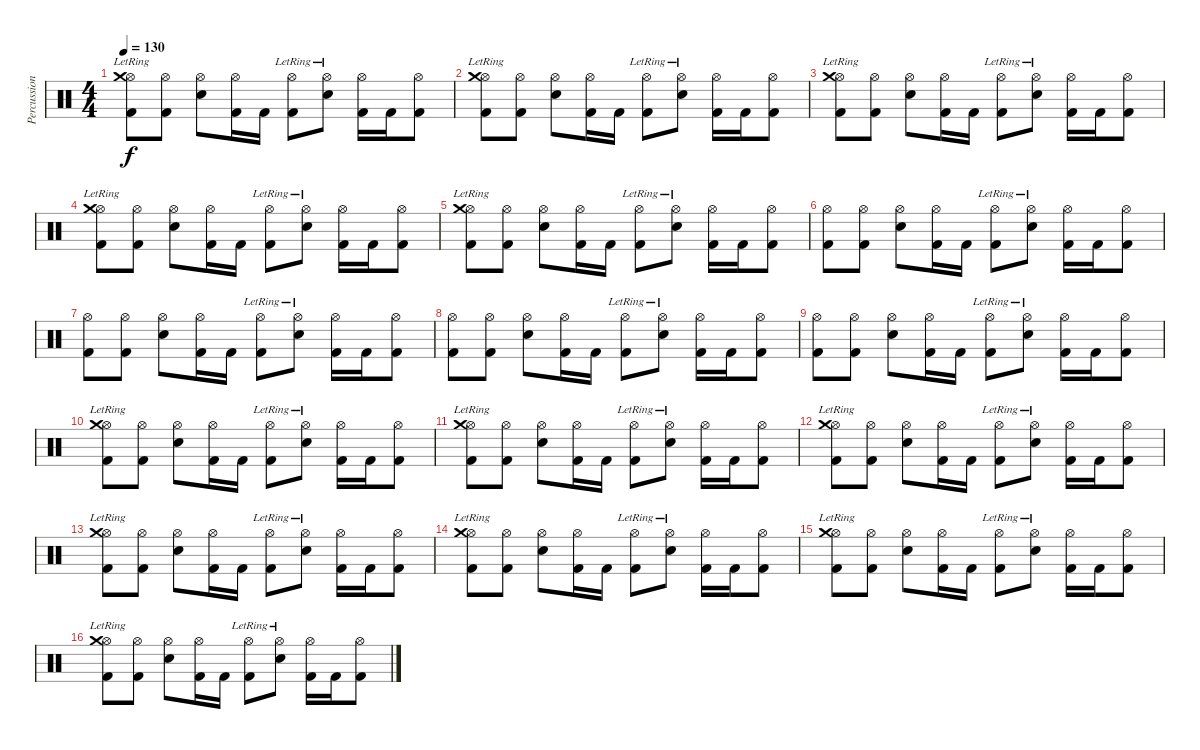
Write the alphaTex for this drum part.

\track ("Percussions" "Percussion") {instrument percussion}
\staff {score}
\articulation defaults
\ts (4 4)
\tempo 130
\clef neutral
\ks c
("Kick (hit) 2" "Hi-Hat (open)" "Crash medium (hit)"{lr}).8{dy f} ("Kick (hit) 2" "Hi-Hat (open)").8 ("Snare (hit) 2" "Hi-Hat (open)").8 ("Kick (hit) 2" "Hi-Hat (open)").16 "Kick (hit) 2".16 ("Kick (hit) 2" "Hi-Hat (open)"{lr}).8 ("Snare (hit) 2" "Hi-Hat (open)"{lr}).8 ("Kick (hit) 2" "Hi-Hat (open)").16 "Kick (hit) 2".16 ("Kick (hit) 2" "Hi-Hat (open)").8 |
("Kick (hit) 2" "Hi-Hat (open)" "Crash medium (hit)"{lr}).8 ("Kick (hit) 2" "Hi-Hat (open)").8 ("Snare (hit) 2" "Hi-Hat (open)").8 ("Kick (hit) 2" "Hi-Hat (open)").16 "Kick (hit) 2".16 ("Kick (hit) 2" "Hi-Hat (open)"{lr}).8 ("Snare (hit) 2" "Hi-Hat (open)"{lr}).8 ("Kick (hit) 2" "Hi-Hat (open)").16 "Kick (hit) 2".16 ("Kick (hit) 2" "Hi-Hat (open)").8 |
("Kick (hit) 2" "Hi-Hat (open)" "Crash medium (hit)"{lr}).8 ("Kick (hit) 2" "Hi-Hat (open)").8 ("Snare (hit) 2" "Hi-Hat (open)").8 ("Kick (hit) 2" "Hi-Hat (open)").16 "Kick (hit) 2".16 ("Kick (hit) 2" "Hi-Hat (open)"{lr}).8 ("Snare (hit) 2" "Hi-Hat (open)"{lr}).8 ("Kick (hit) 2" "Hi-Hat (open)").16 "Kick (hit) 2".16 ("Kick (hit) 2" "Hi-Hat (open)").8 |
("Kick (hit) 2" "Hi-Hat (open)" "Crash medium (hit)"{lr}).8 ("Kick (hit) 2" "Hi-Hat (open)").8 ("Snare (hit) 2" "Hi-Hat (open)").8 ("Kick (hit) 2" "Hi-Hat (open)").16 "Kick (hit) 2".16 ("Kick (hit) 2" "Hi-Hat (open)"{lr}).8 ("Snare (hit) 2" "Hi-Hat (open)"{lr}).8 ("Kick (hit) 2" "Hi-Hat (open)").16 "Kick (hit) 2".16 ("Kick (hit) 2" "Hi-Hat (open)").8 |
("Kick (hit) 2" "Hi-Hat (open)" "Crash medium (hit)"{lr}).8 ("Kick (hit) 2" "Hi-Hat (open)").8 ("Snare (hit) 2" "Hi-Hat (open)").8 ("Kick (hit) 2" "Hi-Hat (open)").16 "Kick (hit) 2".16 ("Kick (hit) 2" "Hi-Hat (open)"{lr}).8 ("Snare (hit) 2" "Hi-Hat (open)"{lr}).8 ("Kick (hit) 2" "Hi-Hat (open)").16 "Kick (hit) 2".16 ("Kick (hit) 2" "Hi-Hat (open)").8 |
("Kick (hit) 2" "Hi-Hat (open)").8 ("Kick (hit) 2" "Hi-Hat (open)").8 ("Snare (hit) 2" "Hi-Hat (open)").8 ("Kick (hit) 2" "Hi-Hat (open)").16 "Kick (hit) 2".16 ("Kick (hit) 2" "Hi-Hat (open)"{lr}).8 ("Snare (hit) 2" "Hi-Hat (open)"{lr}).8 ("Kick (hit) 2" "Hi-Hat (open)").16 "Kick (hit) 2".16 ("Kick (hit) 2" "Hi-Hat (open)").8 |
("Kick (hit) 2" "Hi-Hat (open)").8 ("Kick (hit) 2" "Hi-Hat (open)").8 ("Snare (hit) 2" "Hi-Hat (open)").8 ("Kick (hit) 2" "Hi-Hat (open)").16 "Kick (hit) 2".16 ("Kick (hit) 2" "Hi-Hat (open)"{lr}).8 ("Snare (hit) 2" "Hi-Hat (open)"{lr}).8 ("Kick (hit) 2" "Hi-Hat (open)").16 "Kick (hit) 2".16 ("Kick (hit) 2" "Hi-Hat (open)").8 |
("Kick (hit) 2" "Hi-Hat (open)").8 ("Kick (hit) 2" "Hi-Hat (open)").8 ("Snare (hit) 2" "Hi-Hat (open)").8 ("Kick (hit) 2" "Hi-Hat (open)").16 "Kick (hit) 2".16 ("Kick (hit) 2" "Hi-Hat (open)"{lr}).8 ("Snare (hit) 2" "Hi-Hat (open)"{lr}).8 ("Kick (hit) 2" "Hi-Hat (open)").16 "Kick (hit) 2".16 ("Kick (hit) 2" "Hi-Hat (open)").8 |
("Kick (hit) 2" "Hi-Hat (open)").8 ("Kick (hit) 2" "Hi-Hat (open)").8 ("Snare (hit) 2" "Hi-Hat (open)").8 ("Kick (hit) 2" "Hi-Hat (open)").16 "Kick (hit) 2".16 ("Kick (hit) 2" "Hi-Hat (open)"{lr}).8 ("Snare (hit) 2" "Hi-Hat (open)"{lr}).8 ("Kick (hit) 2" "Hi-Hat (open)").16 "Kick (hit) 2".16 ("Kick (hit) 2" "Hi-Hat (open)").8 |
("Kick (hit) 2" "Hi-Hat (open)" "Crash medium (hit)"{lr}).8 ("Kick (hit) 2" "Hi-Hat (open)").8 ("Snare (hit) 2" "Hi-Hat (open)").8 ("Kick (hit) 2" "Hi-Hat (open)").16 "Kick (hit) 2".16 ("Kick (hit) 2" "Hi-Hat (open)"{lr}).8 ("Snare (hit) 2" "Hi-Hat (open)"{lr}).8 ("Kick (hit) 2" "Hi-Hat (open)").16 "Kick (hit) 2".16 ("Kick (hit) 2" "Hi-Hat (open)").8 |
("Kick (hit) 2" "Hi-Hat (open)" "Crash medium (hit)"{lr}).8 ("Kick (hit) 2" "Hi-Hat (open)").8 ("Snare (hit) 2" "Hi-Hat (open)").8 ("Kick (hit) 2" "Hi-Hat (open)").16 "Kick (hit) 2".16 ("Kick (hit) 2" "Hi-Hat (open)"{lr}).8 ("Snare (hit) 2" "Hi-Hat (open)"{lr}).8 ("Kick (hit) 2" "Hi-Hat (open)").16 "Kick (hit) 2".16 ("Kick (hit) 2" "Hi-Hat (open)").8 |
("Kick (hit) 2" "Hi-Hat (open)" "Crash medium (hit)"{lr}).8 ("Kick (hit) 2" "Hi-Hat (open)").8 ("Snare (hit) 2" "Hi-Hat (open)").8 ("Kick (hit) 2" "Hi-Hat (open)").16 "Kick (hit) 2".16 ("Kick (hit) 2" "Hi-Hat (open)"{lr}).8 ("Snare (hit) 2" "Hi-Hat (open)"{lr}).8 ("Kick (hit) 2" "Hi-Hat (open)").16 "Kick (hit) 2".16 ("Kick (hit) 2" "Hi-Hat (open)").8 |
("Kick (hit) 2" "Hi-Hat (open)" "Crash medium (hit)"{lr}).8 ("Kick (hit) 2" "Hi-Hat (open)").8 ("Snare (hit) 2" "Hi-Hat (open)").8 ("Kick (hit) 2" "Hi-Hat (open)").16 "Kick (hit) 2".16 ("Kick (hit) 2" "Hi-Hat (open)"{lr}).8 ("Snare (hit) 2" "Hi-Hat (open)"{lr}).8 ("Kick (hit) 2" "Hi-Hat (open)").16 "Kick (hit) 2".16 ("Kick (hit) 2" "Hi-Hat (open)").8 |
("Kick (hit) 2" "Hi-Hat (open)" "Crash medium (hit)"{lr}).8 ("Kick (hit) 2" "Hi-Hat (open)").8 ("Snare (hit) 2" "Hi-Hat (open)").8 ("Kick (hit) 2" "Hi-Hat (open)").16 "Kick (hit) 2".16 ("Kick (hit) 2" "Hi-Hat (open)"{lr}).8 ("Snare (hit) 2" "Hi-Hat (open)"{lr}).8 ("Kick (hit) 2" "Hi-Hat (open)").16 "Kick (hit) 2".16 ("Kick (hit) 2" "Hi-Hat (open)").8 |
("Kick (hit) 2" "Hi-Hat (open)" "Crash medium (hit)"{lr}).8 ("Kick (hit) 2" "Hi-Hat (open)").8 ("Snare (hit) 2" "Hi-Hat (open)").8 ("Kick (hit) 2" "Hi-Hat (open)").16 "Kick (hit) 2".16 ("Kick (hit) 2" "Hi-Hat (open)"{lr}).8 ("Snare (hit) 2" "Hi-Hat (open)"{lr}).8 ("Kick (hit) 2" "Hi-Hat (open)").16 "Kick (hit) 2".16 ("Kick (hit) 2" "Hi-Hat (open)").8 |
("Kick (hit) 2" "Hi-Hat (open)" "Crash medium (hit)"{lr}).8 ("Kick (hit) 2" "Hi-Hat (open)").8 ("Snare (hit) 2" "Hi-Hat (open)").8 ("Kick (hit) 2" "Hi-Hat (open)").16 "Kick (hit) 2".16 ("Kick (hit) 2" "Hi-Hat (open)"{lr}).8 ("Snare (hit) 2" "Hi-Hat (open)"{lr}).8 ("Kick (hit) 2" "Hi-Hat (open)").16 "Kick (hit) 2".16 ("Kick (hit) 2" "Hi-Hat (open)").8
